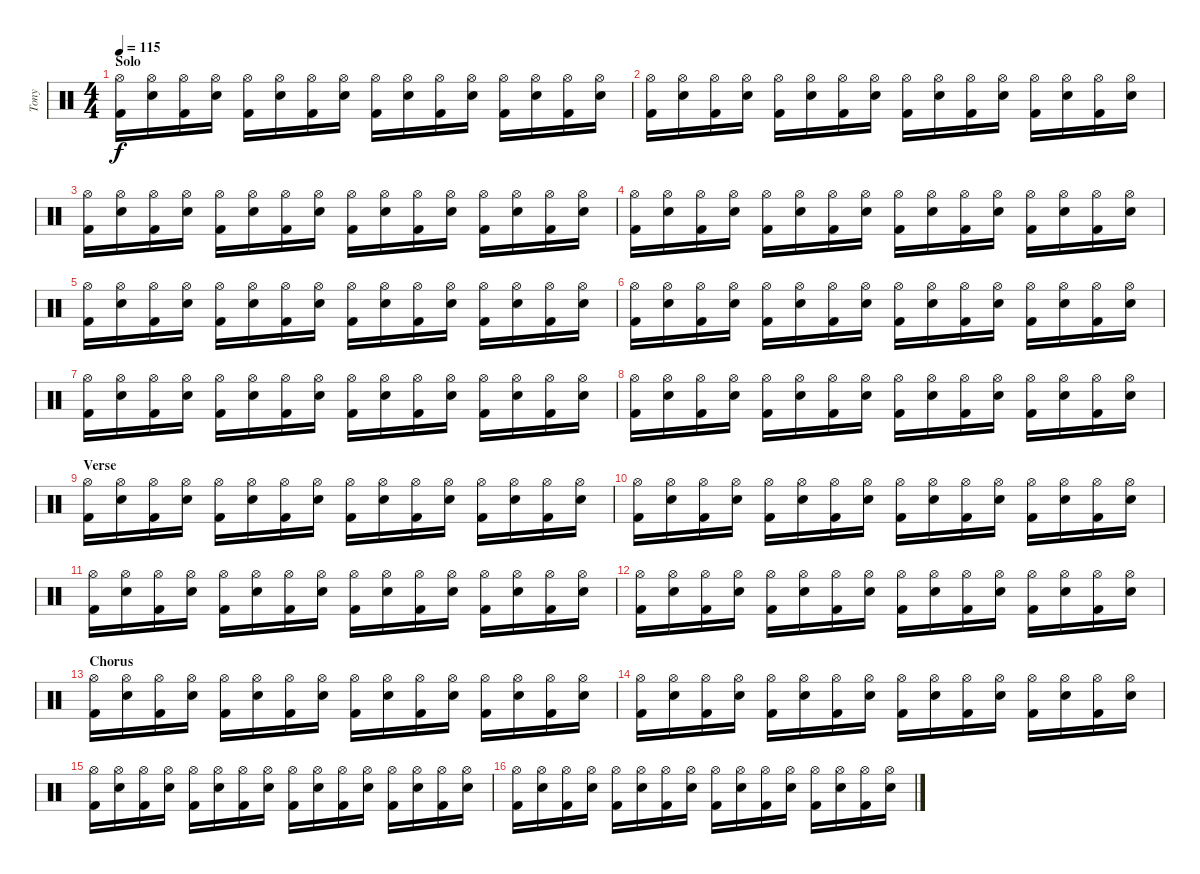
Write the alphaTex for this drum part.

\track ("Tony" "Tony") {instrument percussion}
\staff {score}
\articulation defaults
\ts (4 4)
\section ("" "Solo")
\tempo 115
\clef neutral
\ks c
("Kick (hit) 2" "Hi-Hat (open)").16{dy f} ("Electric Snare (hit)" "Hi-Hat (open)").16 ("Kick (hit) 2" "Hi-Hat (open)").16 ("Electric Snare (hit)" "Hi-Hat (open)").16 ("Kick (hit) 2" "Hi-Hat (open)").16 ("Electric Snare (hit)" "Hi-Hat (open)").16 ("Kick (hit) 2" "Hi-Hat (open)").16 ("Electric Snare (hit)" "Hi-Hat (open)").16 ("Kick (hit) 2" "Hi-Hat (open)").16 ("Electric Snare (hit)" "Hi-Hat (open)").16 ("Kick (hit) 2" "Hi-Hat (open)").16 ("Electric Snare (hit)" "Hi-Hat (open)").16 ("Kick (hit) 2" "Hi-Hat (open)").16 ("Electric Snare (hit)" "Hi-Hat (open)").16 ("Kick (hit) 2" "Hi-Hat (open)").16 ("Electric Snare (hit)" "Hi-Hat (open)").16 |
("Kick (hit) 2" "Hi-Hat (open)").16 ("Electric Snare (hit)" "Hi-Hat (open)").16 ("Kick (hit) 2" "Hi-Hat (open)").16 ("Electric Snare (hit)" "Hi-Hat (open)").16 ("Kick (hit) 2" "Hi-Hat (open)").16 ("Electric Snare (hit)" "Hi-Hat (open)").16 ("Kick (hit) 2" "Hi-Hat (open)").16 ("Electric Snare (hit)" "Hi-Hat (open)").16 ("Kick (hit) 2" "Hi-Hat (open)").16 ("Electric Snare (hit)" "Hi-Hat (open)").16 ("Kick (hit) 2" "Hi-Hat (open)").16 ("Electric Snare (hit)" "Hi-Hat (open)").16 ("Kick (hit) 2" "Hi-Hat (open)").16 ("Electric Snare (hit)" "Hi-Hat (open)").16 ("Kick (hit) 2" "Hi-Hat (open)").16 ("Electric Snare (hit)" "Hi-Hat (open)").16 |
("Kick (hit) 2" "Hi-Hat (open)").16 ("Electric Snare (hit)" "Hi-Hat (open)").16 ("Kick (hit) 2" "Hi-Hat (open)").16 ("Electric Snare (hit)" "Hi-Hat (open)").16 ("Kick (hit) 2" "Hi-Hat (open)").16 ("Electric Snare (hit)" "Hi-Hat (open)").16 ("Kick (hit) 2" "Hi-Hat (open)").16 ("Electric Snare (hit)" "Hi-Hat (open)").16 ("Kick (hit) 2" "Hi-Hat (open)").16 ("Electric Snare (hit)" "Hi-Hat (open)").16 ("Kick (hit) 2" "Hi-Hat (open)").16 ("Electric Snare (hit)" "Hi-Hat (open)").16 ("Kick (hit) 2" "Hi-Hat (open)").16 ("Electric Snare (hit)" "Hi-Hat (open)").16 ("Kick (hit) 2" "Hi-Hat (open)").16 ("Electric Snare (hit)" "Hi-Hat (open)").16 |
("Kick (hit) 2" "Hi-Hat (open)").16 ("Electric Snare (hit)" "Hi-Hat (open)").16 ("Kick (hit) 2" "Hi-Hat (open)").16 ("Electric Snare (hit)" "Hi-Hat (open)").16 ("Kick (hit) 2" "Hi-Hat (open)").16 ("Electric Snare (hit)" "Hi-Hat (open)").16 ("Kick (hit) 2" "Hi-Hat (open)").16 ("Electric Snare (hit)" "Hi-Hat (open)").16 ("Kick (hit) 2" "Hi-Hat (open)").16 ("Electric Snare (hit)" "Hi-Hat (open)").16 ("Kick (hit) 2" "Hi-Hat (open)").16 ("Electric Snare (hit)" "Hi-Hat (open)").16 ("Kick (hit) 2" "Hi-Hat (open)").16 ("Electric Snare (hit)" "Hi-Hat (open)").16 ("Kick (hit) 2" "Hi-Hat (open)").16 ("Electric Snare (hit)" "Hi-Hat (open)").16 |
("Kick (hit) 2" "Hi-Hat (open)").16 ("Electric Snare (hit)" "Hi-Hat (open)").16 ("Kick (hit) 2" "Hi-Hat (open)").16 ("Electric Snare (hit)" "Hi-Hat (open)").16 ("Kick (hit) 2" "Hi-Hat (open)").16 ("Electric Snare (hit)" "Hi-Hat (open)").16 ("Kick (hit) 2" "Hi-Hat (open)").16 ("Electric Snare (hit)" "Hi-Hat (open)").16 ("Kick (hit) 2" "Hi-Hat (open)").16 ("Electric Snare (hit)" "Hi-Hat (open)").16 ("Kick (hit) 2" "Hi-Hat (open)").16 ("Electric Snare (hit)" "Hi-Hat (open)").16 ("Kick (hit) 2" "Hi-Hat (open)").16 ("Electric Snare (hit)" "Hi-Hat (open)").16 ("Kick (hit) 2" "Hi-Hat (open)").16 ("Electric Snare (hit)" "Hi-Hat (open)").16 |
("Kick (hit) 2" "Hi-Hat (open)").16 ("Electric Snare (hit)" "Hi-Hat (open)").16 ("Kick (hit) 2" "Hi-Hat (open)").16 ("Electric Snare (hit)" "Hi-Hat (open)").16 ("Kick (hit) 2" "Hi-Hat (open)").16 ("Electric Snare (hit)" "Hi-Hat (open)").16 ("Kick (hit) 2" "Hi-Hat (open)").16 ("Electric Snare (hit)" "Hi-Hat (open)").16 ("Kick (hit) 2" "Hi-Hat (open)").16 ("Electric Snare (hit)" "Hi-Hat (open)").16 ("Kick (hit) 2" "Hi-Hat (open)").16 ("Electric Snare (hit)" "Hi-Hat (open)").16 ("Kick (hit) 2" "Hi-Hat (open)").16 ("Electric Snare (hit)" "Hi-Hat (open)").16 ("Kick (hit) 2" "Hi-Hat (open)").16 ("Electric Snare (hit)" "Hi-Hat (open)").16 |
("Kick (hit) 2" "Hi-Hat (open)").16 ("Electric Snare (hit)" "Hi-Hat (open)").16 ("Kick (hit) 2" "Hi-Hat (open)").16 ("Electric Snare (hit)" "Hi-Hat (open)").16 ("Kick (hit) 2" "Hi-Hat (open)").16 ("Electric Snare (hit)" "Hi-Hat (open)").16 ("Kick (hit) 2" "Hi-Hat (open)").16 ("Electric Snare (hit)" "Hi-Hat (open)").16 ("Kick (hit) 2" "Hi-Hat (open)").16 ("Electric Snare (hit)" "Hi-Hat (open)").16 ("Kick (hit) 2" "Hi-Hat (open)").16 ("Electric Snare (hit)" "Hi-Hat (open)").16 ("Kick (hit) 2" "Hi-Hat (open)").16 ("Electric Snare (hit)" "Hi-Hat (open)").16 ("Kick (hit) 2" "Hi-Hat (open)").16 ("Electric Snare (hit)" "Hi-Hat (open)").16 |
("Kick (hit) 2" "Hi-Hat (open)").16 ("Electric Snare (hit)" "Hi-Hat (open)").16 ("Kick (hit) 2" "Hi-Hat (open)").16 ("Electric Snare (hit)" "Hi-Hat (open)").16 ("Kick (hit) 2" "Hi-Hat (open)").16 ("Electric Snare (hit)" "Hi-Hat (open)").16 ("Kick (hit) 2" "Hi-Hat (open)").16 ("Electric Snare (hit)" "Hi-Hat (open)").16 ("Kick (hit) 2" "Hi-Hat (open)").16 ("Electric Snare (hit)" "Hi-Hat (open)").16 ("Kick (hit) 2" "Hi-Hat (open)").16 ("Electric Snare (hit)" "Hi-Hat (open)").16 ("Kick (hit) 2" "Hi-Hat (open)").16 ("Electric Snare (hit)" "Hi-Hat (open)").16 ("Kick (hit) 2" "Hi-Hat (open)").16 ("Electric Snare (hit)" "Hi-Hat (open)").16 |
\section ("" "Verse")
("Kick (hit) 2" "Hi-Hat (open)").16 ("Electric Snare (hit)" "Hi-Hat (open)").16 ("Kick (hit) 2" "Hi-Hat (open)").16 ("Electric Snare (hit)" "Hi-Hat (open)").16 ("Kick (hit) 2" "Hi-Hat (open)").16 ("Electric Snare (hit)" "Hi-Hat (open)").16 ("Kick (hit) 2" "Hi-Hat (open)").16 ("Electric Snare (hit)" "Hi-Hat (open)").16 ("Kick (hit) 2" "Hi-Hat (open)").16 ("Electric Snare (hit)" "Hi-Hat (open)").16 ("Kick (hit) 2" "Hi-Hat (open)").16 ("Electric Snare (hit)" "Hi-Hat (open)").16 ("Kick (hit) 2" "Hi-Hat (open)").16 ("Electric Snare (hit)" "Hi-Hat (open)").16 ("Kick (hit) 2" "Hi-Hat (open)").16 ("Electric Snare (hit)" "Hi-Hat (open)").16 |
("Kick (hit) 2" "Hi-Hat (open)").16 ("Electric Snare (hit)" "Hi-Hat (open)").16 ("Kick (hit) 2" "Hi-Hat (open)").16 ("Electric Snare (hit)" "Hi-Hat (open)").16 ("Kick (hit) 2" "Hi-Hat (open)").16 ("Electric Snare (hit)" "Hi-Hat (open)").16 ("Kick (hit) 2" "Hi-Hat (open)").16 ("Electric Snare (hit)" "Hi-Hat (open)").16 ("Kick (hit) 2" "Hi-Hat (open)").16 ("Electric Snare (hit)" "Hi-Hat (open)").16 ("Kick (hit) 2" "Hi-Hat (open)").16 ("Electric Snare (hit)" "Hi-Hat (open)").16 ("Kick (hit) 2" "Hi-Hat (open)").16 ("Electric Snare (hit)" "Hi-Hat (open)").16 ("Kick (hit) 2" "Hi-Hat (open)").16 ("Electric Snare (hit)" "Hi-Hat (open)").16 |
("Kick (hit) 2" "Hi-Hat (open)").16 ("Electric Snare (hit)" "Hi-Hat (open)").16 ("Kick (hit) 2" "Hi-Hat (open)").16 ("Electric Snare (hit)" "Hi-Hat (open)").16 ("Kick (hit) 2" "Hi-Hat (open)").16 ("Electric Snare (hit)" "Hi-Hat (open)").16 ("Kick (hit) 2" "Hi-Hat (open)").16 ("Electric Snare (hit)" "Hi-Hat (open)").16 ("Kick (hit) 2" "Hi-Hat (open)").16 ("Electric Snare (hit)" "Hi-Hat (open)").16 ("Kick (hit) 2" "Hi-Hat (open)").16 ("Electric Snare (hit)" "Hi-Hat (open)").16 ("Kick (hit) 2" "Hi-Hat (open)").16 ("Electric Snare (hit)" "Hi-Hat (open)").16 ("Kick (hit) 2" "Hi-Hat (open)").16 ("Electric Snare (hit)" "Hi-Hat (open)").16 |
("Kick (hit) 2" "Hi-Hat (open)").16 ("Electric Snare (hit)" "Hi-Hat (open)").16 ("Kick (hit) 2" "Hi-Hat (open)").16 ("Electric Snare (hit)" "Hi-Hat (open)").16 ("Kick (hit) 2" "Hi-Hat (open)").16 ("Electric Snare (hit)" "Hi-Hat (open)").16 ("Kick (hit) 2" "Hi-Hat (open)").16 ("Electric Snare (hit)" "Hi-Hat (open)").16 ("Kick (hit) 2" "Hi-Hat (open)").16 ("Electric Snare (hit)" "Hi-Hat (open)").16 ("Kick (hit) 2" "Hi-Hat (open)").16 ("Electric Snare (hit)" "Hi-Hat (open)").16 ("Kick (hit) 2" "Hi-Hat (open)").16 ("Electric Snare (hit)" "Hi-Hat (open)").16 ("Kick (hit) 2" "Hi-Hat (open)").16 ("Electric Snare (hit)" "Hi-Hat (open)").16 |
\section ("" "Chorus")
("Kick (hit) 2" "Hi-Hat (open)").16 ("Electric Snare (hit)" "Hi-Hat (open)").16 ("Kick (hit) 2" "Hi-Hat (open)").16 ("Electric Snare (hit)" "Hi-Hat (open)").16 ("Kick (hit) 2" "Hi-Hat (open)").16 ("Electric Snare (hit)" "Hi-Hat (open)").16 ("Kick (hit) 2" "Hi-Hat (open)").16 ("Electric Snare (hit)" "Hi-Hat (open)").16 ("Kick (hit) 2" "Hi-Hat (open)").16 ("Electric Snare (hit)" "Hi-Hat (open)").16 ("Kick (hit) 2" "Hi-Hat (open)").16 ("Electric Snare (hit)" "Hi-Hat (open)").16 ("Kick (hit) 2" "Hi-Hat (open)").16 ("Electric Snare (hit)" "Hi-Hat (open)").16 ("Kick (hit) 2" "Hi-Hat (open)").16 ("Electric Snare (hit)" "Hi-Hat (open)").16 |
("Kick (hit) 2" "Hi-Hat (open)").16 ("Electric Snare (hit)" "Hi-Hat (open)").16 ("Kick (hit) 2" "Hi-Hat (open)").16 ("Electric Snare (hit)" "Hi-Hat (open)").16 ("Kick (hit) 2" "Hi-Hat (open)").16 ("Electric Snare (hit)" "Hi-Hat (open)").16 ("Kick (hit) 2" "Hi-Hat (open)").16 ("Electric Snare (hit)" "Hi-Hat (open)").16 ("Kick (hit) 2" "Hi-Hat (open)").16 ("Electric Snare (hit)" "Hi-Hat (open)").16 ("Kick (hit) 2" "Hi-Hat (open)").16 ("Electric Snare (hit)" "Hi-Hat (open)").16 ("Kick (hit) 2" "Hi-Hat (open)").16 ("Electric Snare (hit)" "Hi-Hat (open)").16 ("Kick (hit) 2" "Hi-Hat (open)").16 ("Electric Snare (hit)" "Hi-Hat (open)").16 |
("Kick (hit) 2" "Hi-Hat (open)").16 ("Electric Snare (hit)" "Hi-Hat (open)").16 ("Kick (hit) 2" "Hi-Hat (open)").16 ("Electric Snare (hit)" "Hi-Hat (open)").16 ("Kick (hit) 2" "Hi-Hat (open)").16 ("Electric Snare (hit)" "Hi-Hat (open)").16 ("Kick (hit) 2" "Hi-Hat (open)").16 ("Electric Snare (hit)" "Hi-Hat (open)").16 ("Kick (hit) 2" "Hi-Hat (open)").16 ("Electric Snare (hit)" "Hi-Hat (open)").16 ("Kick (hit) 2" "Hi-Hat (open)").16 ("Electric Snare (hit)" "Hi-Hat (open)").16 ("Kick (hit) 2" "Hi-Hat (open)").16 ("Electric Snare (hit)" "Hi-Hat (open)").16 ("Kick (hit) 2" "Hi-Hat (open)").16 ("Electric Snare (hit)" "Hi-Hat (open)").16 |
("Kick (hit) 2" "Hi-Hat (open)").16 ("Electric Snare (hit)" "Hi-Hat (open)").16 ("Kick (hit) 2" "Hi-Hat (open)").16 ("Electric Snare (hit)" "Hi-Hat (open)").16 ("Kick (hit) 2" "Hi-Hat (open)").16 ("Electric Snare (hit)" "Hi-Hat (open)").16 ("Kick (hit) 2" "Hi-Hat (open)").16 ("Electric Snare (hit)" "Hi-Hat (open)").16 ("Kick (hit) 2" "Hi-Hat (open)").16 ("Electric Snare (hit)" "Hi-Hat (open)").16 ("Kick (hit) 2" "Hi-Hat (open)").16 ("Electric Snare (hit)" "Hi-Hat (open)").16 ("Kick (hit) 2" "Hi-Hat (open)").16 ("Electric Snare (hit)" "Hi-Hat (open)").16 ("Kick (hit) 2" "Hi-Hat (open)").16 ("Electric Snare (hit)" "Hi-Hat (open)").16
